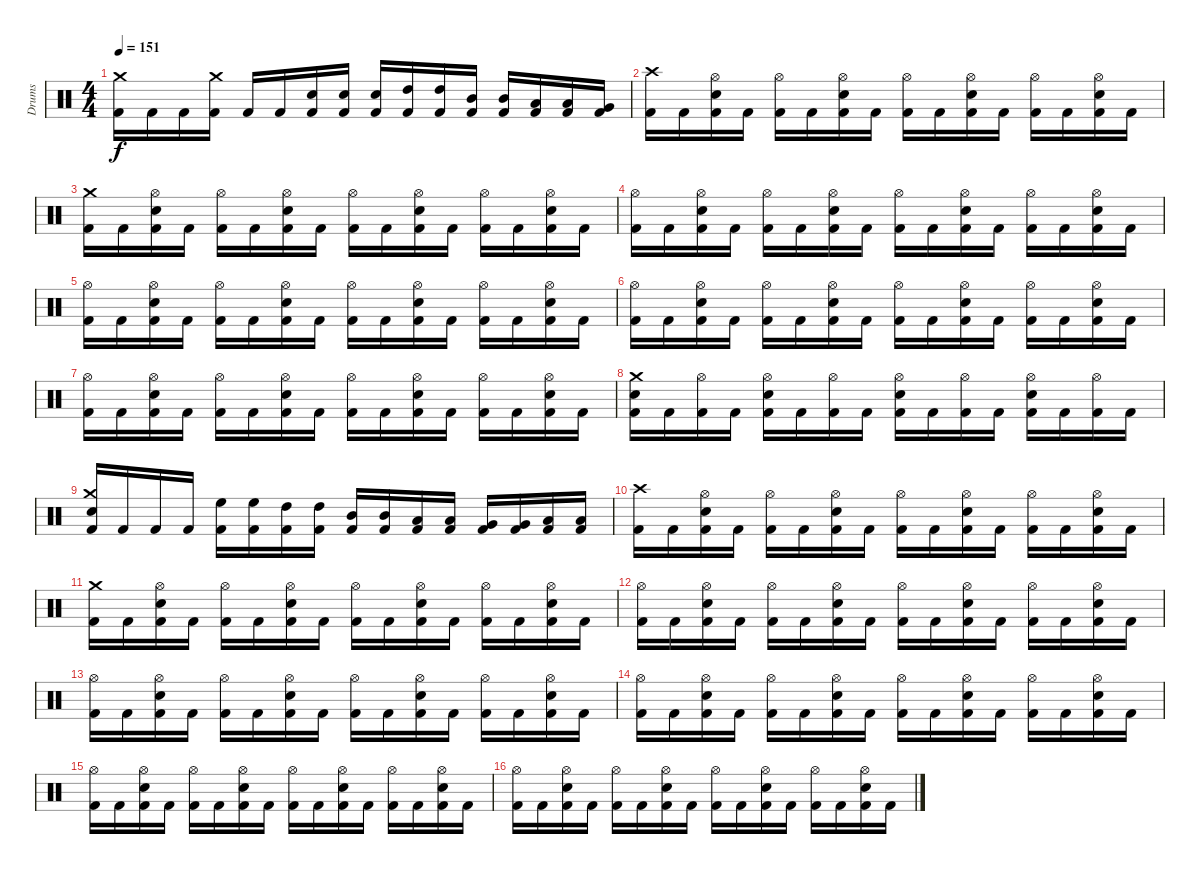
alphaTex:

\track ("Drums" "Drums") {instrument percussion}
\staff {score}
\articulation defaults
\ts (4 4)
\tempo 151
\clef neutral
\ks c
("Kick (hit) 2" "Crash medium (hit)").16{dy f} "Kick (hit) 2".16 "Kick (hit) 2".16 ("Kick (hit) 2" "Crash medium (hit)").16 "Kick (hit) 2".16 "Kick (hit) 2".16 ("Kick (hit) 2" "Snare (hit) 2").16 ("Kick (hit) 2" "Snare (hit) 2").16 ("Kick (hit) 2" "Snare (hit) 2").16 ("Kick (hit) 2" "High Tom (hit)").16 ("Kick (hit) 2" "High Tom (hit)").16 ("Kick (hit) 2" "Mid Tom (hit)").16 ("Kick (hit) 2" "Mid Tom (hit)").16 ("Kick (hit) 2" "Low Tom (hit)").16 ("Kick (hit) 2" "Low Tom (hit)").16 ("Kick (hit) 2" "Very Low Tom (hit)").16 |
\section ("" "")
("Kick (hit) 2" "Crash high (hit)").16 "Kick (hit) 2".16 ("Kick (hit) 2" "Snare (hit) 2" "Hi-Hat (open)").16 "Kick (hit) 2".16 ("Kick (hit) 2" "Hi-Hat (open)").16 "Kick (hit) 2".16 ("Kick (hit) 2" "Snare (hit) 2" "Hi-Hat (open)").16 "Kick (hit) 2".16 ("Kick (hit) 2" "Hi-Hat (open)").16 "Kick (hit) 2".16 ("Kick (hit) 2" "Snare (hit) 2" "Hi-Hat (open)").16 "Kick (hit) 2".16 ("Kick (hit) 2" "Hi-Hat (open)").16 "Kick (hit) 2".16 ("Kick (hit) 2" "Snare (hit) 2" "Hi-Hat (open)").16 "Kick (hit) 2".16 |
("Kick (hit) 2" "Crash medium (hit)").16 "Kick (hit) 2".16 ("Kick (hit) 2" "Snare (hit) 2" "Hi-Hat (open)").16 "Kick (hit) 2".16 ("Kick (hit) 2" "Hi-Hat (open)").16 "Kick (hit) 2".16 ("Kick (hit) 2" "Snare (hit) 2" "Hi-Hat (open)").16 "Kick (hit) 2".16 ("Kick (hit) 2" "Hi-Hat (open)").16 "Kick (hit) 2".16 ("Kick (hit) 2" "Snare (hit) 2" "Hi-Hat (open)").16 "Kick (hit) 2".16 ("Kick (hit) 2" "Hi-Hat (open)").16 "Kick (hit) 2".16 ("Kick (hit) 2" "Snare (hit) 2" "Hi-Hat (open)").16 "Kick (hit) 2".16 |
("Kick (hit) 2" "Hi-Hat (open)").16 "Kick (hit) 2".16 ("Kick (hit) 2" "Snare (hit) 2" "Hi-Hat (open)").16 "Kick (hit) 2".16 ("Kick (hit) 2" "Hi-Hat (open)").16 "Kick (hit) 2".16 ("Kick (hit) 2" "Snare (hit) 2" "Hi-Hat (open)").16 "Kick (hit) 2".16 ("Kick (hit) 2" "Hi-Hat (open)").16 "Kick (hit) 2".16 ("Kick (hit) 2" "Snare (hit) 2" "Hi-Hat (open)").16 "Kick (hit) 2".16 ("Kick (hit) 2" "Hi-Hat (open)").16 "Kick (hit) 2".16 ("Kick (hit) 2" "Snare (hit) 2" "Hi-Hat (open)").16 "Kick (hit) 2".16 |
("Kick (hit) 2" "Hi-Hat (open)").16 "Kick (hit) 2".16 ("Kick (hit) 2" "Snare (hit) 2" "Hi-Hat (open)").16 "Kick (hit) 2".16 ("Kick (hit) 2" "Hi-Hat (open)").16 "Kick (hit) 2".16 ("Kick (hit) 2" "Snare (hit) 2" "Hi-Hat (open)").16 "Kick (hit) 2".16 ("Kick (hit) 2" "Hi-Hat (open)").16 "Kick (hit) 2".16 ("Kick (hit) 2" "Snare (hit) 2" "Hi-Hat (open)").16 "Kick (hit) 2".16 ("Kick (hit) 2" "Hi-Hat (open)").16 "Kick (hit) 2".16 ("Kick (hit) 2" "Snare (hit) 2" "Hi-Hat (open)").16 "Kick (hit) 2".16 |
("Kick (hit) 2" "Hi-Hat (open)").16 "Kick (hit) 2".16 ("Kick (hit) 2" "Snare (hit) 2" "Hi-Hat (open)").16 "Kick (hit) 2".16 ("Kick (hit) 2" "Hi-Hat (open)").16 "Kick (hit) 2".16 ("Kick (hit) 2" "Snare (hit) 2" "Hi-Hat (open)").16 "Kick (hit) 2".16 ("Kick (hit) 2" "Hi-Hat (open)").16 "Kick (hit) 2".16 ("Kick (hit) 2" "Snare (hit) 2" "Hi-Hat (open)").16 "Kick (hit) 2".16 ("Kick (hit) 2" "Hi-Hat (open)").16 "Kick (hit) 2".16 ("Kick (hit) 2" "Snare (hit) 2" "Hi-Hat (open)").16 "Kick (hit) 2".16 |
("Kick (hit) 2" "Hi-Hat (open)").16 "Kick (hit) 2".16 ("Kick (hit) 2" "Snare (hit) 2" "Hi-Hat (open)").16 "Kick (hit) 2".16 ("Kick (hit) 2" "Hi-Hat (open)").16 "Kick (hit) 2".16 ("Kick (hit) 2" "Snare (hit) 2" "Hi-Hat (open)").16 "Kick (hit) 2".16 ("Kick (hit) 2" "Hi-Hat (open)").16 "Kick (hit) 2".16 ("Kick (hit) 2" "Snare (hit) 2" "Hi-Hat (open)").16 "Kick (hit) 2".16 ("Kick (hit) 2" "Hi-Hat (open)").16 "Kick (hit) 2".16 ("Kick (hit) 2" "Snare (hit) 2" "Hi-Hat (open)").16 "Kick (hit) 2".16 |
("Kick (hit) 2" "Snare (hit) 2" "Crash medium (hit)").16 "Kick (hit) 2".16 ("Kick (hit) 2" "Hi-Hat (open)").16 "Kick (hit) 2".16 ("Kick (hit) 2" "Snare (hit) 2" "Hi-Hat (open)").16 "Kick (hit) 2".16 ("Kick (hit) 2" "Hi-Hat (open)").16 "Kick (hit) 2".16 ("Kick (hit) 2" "Snare (hit) 2" "Hi-Hat (open)").16 "Kick (hit) 2".16 ("Kick (hit) 2" "Hi-Hat (open)").16 "Kick (hit) 2".16 ("Kick (hit) 2" "Snare (hit) 2" "Hi-Hat (open)").16 "Kick (hit) 2".16 ("Kick (hit) 2" "Hi-Hat (open)").16 "Kick (hit) 2".16 |
("Kick (hit) 2" "Snare (hit) 2" "Crash medium (hit)").16 "Kick (hit) 2".16 "Kick (hit) 2".16 "Kick (hit) 2".16 ("Kick (hit) 2" "High Floor Tom (hit)").16 ("Kick (hit) 2" "High Floor Tom (hit)").16 ("Kick (hit) 2" "High Tom (hit)").16 ("Kick (hit) 2" "High Tom (hit)").16 ("Kick (hit) 2" "Mid Tom (hit)").16 ("Kick (hit) 2" "Mid Tom (hit)").16 ("Kick (hit) 2" "Low Tom (hit)").16 ("Kick (hit) 2" "Low Tom (hit)").16 ("Kick (hit) 2" "Very Low Tom (hit)").16 ("Kick (hit) 2" "Very Low Tom (hit)").16 ("Kick (hit) 2" "Low Floor Tom (hit)").16 ("Kick (hit) 2" "Low Floor Tom (hit)").16 |
\section ("" "")
("Kick (hit) 2" "Crash high (hit)").16 "Kick (hit) 2".16 ("Kick (hit) 2" "Snare (hit) 2" "Hi-Hat (open)").16 "Kick (hit) 2".16 ("Kick (hit) 2" "Hi-Hat (open)").16 "Kick (hit) 2".16 ("Kick (hit) 2" "Snare (hit) 2" "Hi-Hat (open)").16 "Kick (hit) 2".16 ("Kick (hit) 2" "Hi-Hat (open)").16 "Kick (hit) 2".16 ("Kick (hit) 2" "Snare (hit) 2" "Hi-Hat (open)").16 "Kick (hit) 2".16 ("Kick (hit) 2" "Hi-Hat (open)").16 "Kick (hit) 2".16 ("Kick (hit) 2" "Snare (hit) 2" "Hi-Hat (open)").16 "Kick (hit) 2".16 |
("Kick (hit) 2" "Crash medium (hit)").16 "Kick (hit) 2".16 ("Kick (hit) 2" "Snare (hit) 2" "Hi-Hat (open)").16 "Kick (hit) 2".16 ("Kick (hit) 2" "Hi-Hat (open)").16 "Kick (hit) 2".16 ("Kick (hit) 2" "Snare (hit) 2" "Hi-Hat (open)").16 "Kick (hit) 2".16 ("Kick (hit) 2" "Hi-Hat (open)").16 "Kick (hit) 2".16 ("Kick (hit) 2" "Snare (hit) 2" "Hi-Hat (open)").16 "Kick (hit) 2".16 ("Kick (hit) 2" "Hi-Hat (open)").16 "Kick (hit) 2".16 ("Kick (hit) 2" "Snare (hit) 2" "Hi-Hat (open)").16 "Kick (hit) 2".16 |
("Kick (hit) 2" "Hi-Hat (open)").16 "Kick (hit) 2".16 ("Kick (hit) 2" "Snare (hit) 2" "Hi-Hat (open)").16 "Kick (hit) 2".16 ("Kick (hit) 2" "Hi-Hat (open)").16 "Kick (hit) 2".16 ("Kick (hit) 2" "Snare (hit) 2" "Hi-Hat (open)").16 "Kick (hit) 2".16 ("Kick (hit) 2" "Hi-Hat (open)").16 "Kick (hit) 2".16 ("Kick (hit) 2" "Snare (hit) 2" "Hi-Hat (open)").16 "Kick (hit) 2".16 ("Kick (hit) 2" "Hi-Hat (open)").16 "Kick (hit) 2".16 ("Kick (hit) 2" "Snare (hit) 2" "Hi-Hat (open)").16 "Kick (hit) 2".16 |
("Kick (hit) 2" "Hi-Hat (open)").16 "Kick (hit) 2".16 ("Kick (hit) 2" "Snare (hit) 2" "Hi-Hat (open)").16 "Kick (hit) 2".16 ("Kick (hit) 2" "Hi-Hat (open)").16 "Kick (hit) 2".16 ("Kick (hit) 2" "Snare (hit) 2" "Hi-Hat (open)").16 "Kick (hit) 2".16 ("Kick (hit) 2" "Hi-Hat (open)").16 "Kick (hit) 2".16 ("Kick (hit) 2" "Snare (hit) 2" "Hi-Hat (open)").16 "Kick (hit) 2".16 ("Kick (hit) 2" "Hi-Hat (open)").16 "Kick (hit) 2".16 ("Kick (hit) 2" "Snare (hit) 2" "Hi-Hat (open)").16 "Kick (hit) 2".16 |
("Kick (hit) 2" "Hi-Hat (open)").16 "Kick (hit) 2".16 ("Kick (hit) 2" "Snare (hit) 2" "Hi-Hat (open)").16 "Kick (hit) 2".16 ("Kick (hit) 2" "Hi-Hat (open)").16 "Kick (hit) 2".16 ("Kick (hit) 2" "Snare (hit) 2" "Hi-Hat (open)").16 "Kick (hit) 2".16 ("Kick (hit) 2" "Hi-Hat (open)").16 "Kick (hit) 2".16 ("Kick (hit) 2" "Snare (hit) 2" "Hi-Hat (open)").16 "Kick (hit) 2".16 ("Kick (hit) 2" "Hi-Hat (open)").16 "Kick (hit) 2".16 ("Kick (hit) 2" "Snare (hit) 2" "Hi-Hat (open)").16 "Kick (hit) 2".16 |
("Kick (hit) 2" "Hi-Hat (open)").16 "Kick (hit) 2".16 ("Kick (hit) 2" "Snare (hit) 2" "Hi-Hat (open)").16 "Kick (hit) 2".16 ("Kick (hit) 2" "Hi-Hat (open)").16 "Kick (hit) 2".16 ("Kick (hit) 2" "Snare (hit) 2" "Hi-Hat (open)").16 "Kick (hit) 2".16 ("Kick (hit) 2" "Hi-Hat (open)").16 "Kick (hit) 2".16 ("Kick (hit) 2" "Snare (hit) 2" "Hi-Hat (open)").16 "Kick (hit) 2".16 ("Kick (hit) 2" "Hi-Hat (open)").16 "Kick (hit) 2".16 ("Kick (hit) 2" "Snare (hit) 2" "Hi-Hat (open)").16 "Kick (hit) 2".16 |
("Kick (hit) 2" "Hi-Hat (open)").16 "Kick (hit) 2".16 ("Kick (hit) 2" "Snare (hit) 2" "Hi-Hat (open)").16 "Kick (hit) 2".16 ("Kick (hit) 2" "Hi-Hat (open)").16 "Kick (hit) 2".16 ("Kick (hit) 2" "Snare (hit) 2" "Hi-Hat (open)").16 "Kick (hit) 2".16 ("Kick (hit) 2" "Hi-Hat (open)").16 "Kick (hit) 2".16 ("Kick (hit) 2" "Snare (hit) 2" "Hi-Hat (open)").16 "Kick (hit) 2".16 ("Kick (hit) 2" "Hi-Hat (open)").16 "Kick (hit) 2".16 ("Kick (hit) 2" "Snare (hit) 2" "Hi-Hat (open)").16 "Kick (hit) 2".16
